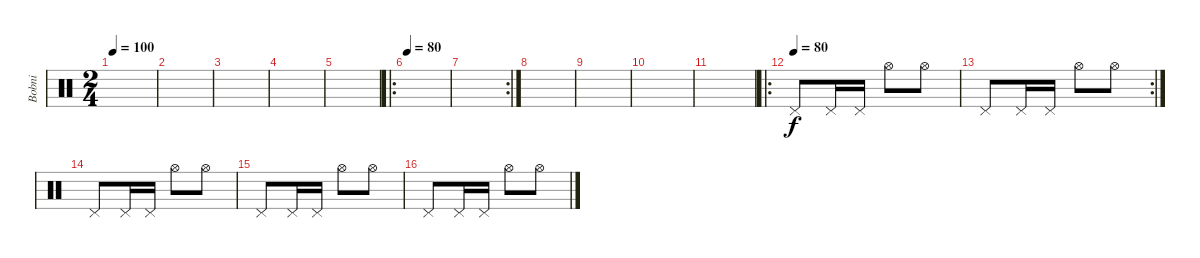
\track ("Bobni" "Bobni") {instrument percussion}
\staff {score}
\articulation defaults
\ts (2 4)
\tempo 100
\clef neutral
\ks c
|
|
|
|
|
\ro
\tempo 80
|
\rc 2
|
|
|
|
|
\ro
\tempo (80)
"Pedal Hi-Hat (hit)".8 "Pedal Hi-Hat (hit)".16 "Pedal Hi-Hat (hit)".16 "Hi-Hat (open)".8 "Hi-Hat (open)".8 |
\rc 2 "Pedal Hi-Hat (hit)".8 "Pedal Hi-Hat (hit)".16 "Pedal Hi-Hat (hit)".16 "Hi-Hat (open)".8 "Hi-Hat (open)".8
|
"Pedal Hi-Hat (hit)".8 "Pedal Hi-Hat (hit)".16 "Pedal Hi-Hat (hit)".16 "Hi-Hat (open)".8 "Hi-Hat (open)".8 |
"Pedal Hi-Hat (hit)".8 "Pedal Hi-Hat (hit)".16 "Pedal Hi-Hat (hit)".16 "Hi-Hat (open)".8 "Hi-Hat (open)".8 |
"Pedal Hi-Hat (hit)".8 "Pedal Hi-Hat (hit)".16 "Pedal Hi-Hat (hit)".16 "Hi-Hat (open)".8 "Hi-Hat (open)".8
